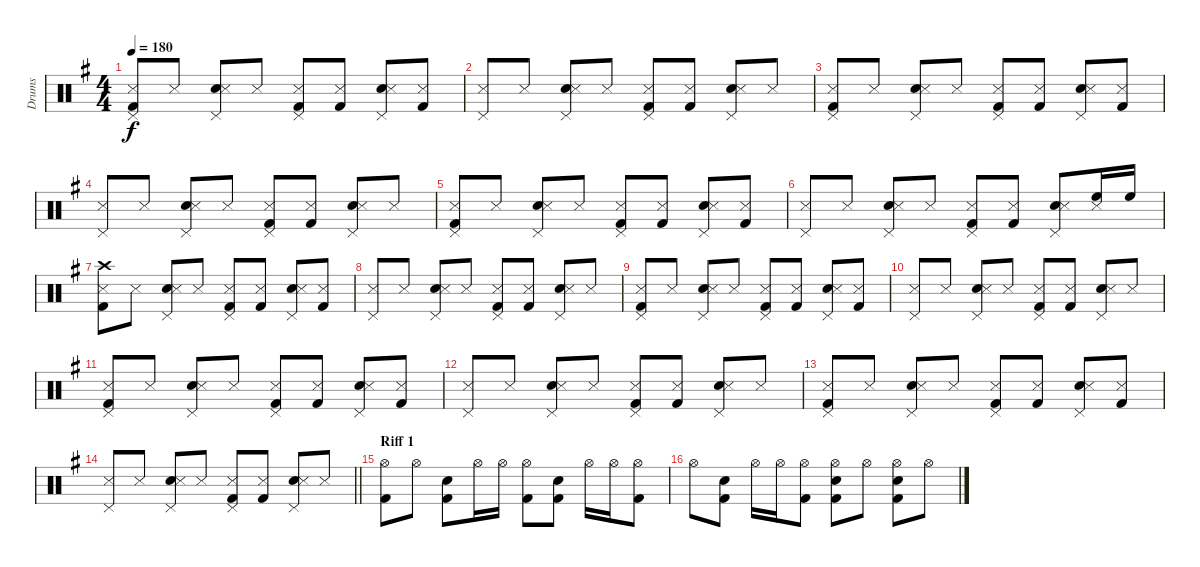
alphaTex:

\track ("Drums" "Drums") {instrument percussion bank 255}
\staff {score}
\articulation defaults
\ts (4 4)
\tempo 180
\clef neutral
\ks g
("Pedal Hi-Hat (hit)" "Snare (side stick) 3" "Kick (hit) 2").8{dy f} "Snare (side stick) 3".8 ("Pedal Hi-Hat (hit)" "Snare (hit) 2" "Snare (side stick) 3").8 "Snare (side stick) 3".8 ("Pedal Hi-Hat (hit)" "Snare (side stick) 3" "Kick (hit) 2").8 ("Snare (side stick) 3" "Kick (hit) 2").8 ("Pedal Hi-Hat (hit)" "Snare (hit) 2" "Snare (side stick) 3").8 ("Snare (side stick) 3" "Kick (hit) 2").8 |
("Pedal Hi-Hat (hit)" "Snare (side stick) 3").8 "Snare (side stick) 3".8 ("Pedal Hi-Hat (hit)" "Snare (hit) 2" "Snare (side stick) 3").8 "Snare (side stick) 3".8 ("Pedal Hi-Hat (hit)" "Snare (side stick) 3" "Kick (hit) 2").8 ("Snare (side stick) 3" "Kick (hit) 2").8 ("Pedal Hi-Hat (hit)" "Snare (hit) 2" "Snare (side stick) 3").8 "Snare (side stick) 3".8 |
("Pedal Hi-Hat (hit)" "Snare (side stick) 3" "Kick (hit) 2").8 "Snare (side stick) 3".8 ("Pedal Hi-Hat (hit)" "Snare (hit) 2" "Snare (side stick) 3").8 "Snare (side stick) 3".8 ("Pedal Hi-Hat (hit)" "Snare (side stick) 3" "Kick (hit) 2").8 ("Snare (side stick) 3" "Kick (hit) 2").8 ("Pedal Hi-Hat (hit)" "Snare (hit) 2" "Snare (side stick) 3").8 ("Snare (side stick) 3" "Kick (hit) 2").8 |
("Pedal Hi-Hat (hit)" "Snare (side stick) 3").8 "Snare (side stick) 3".8 ("Pedal Hi-Hat (hit)" "Snare (hit) 2" "Snare (side stick) 3").8 "Snare (side stick) 3".8 ("Pedal Hi-Hat (hit)" "Snare (side stick) 3" "Kick (hit) 2").8 ("Snare (side stick) 3" "Kick (hit) 2").8 ("Pedal Hi-Hat (hit)" "Snare (hit) 2" "Snare (side stick) 3").8 "Snare (side stick) 3".8 |
("Pedal Hi-Hat (hit)" "Snare (side stick) 3" "Kick (hit) 2").8 "Snare (side stick) 3".8 ("Pedal Hi-Hat (hit)" "Snare (hit) 2" "Snare (side stick) 3").8 "Snare (side stick) 3".8 ("Pedal Hi-Hat (hit)" "Snare (side stick) 3" "Kick (hit) 2").8 ("Snare (side stick) 3" "Kick (hit) 2").8 ("Pedal Hi-Hat (hit)" "Snare (hit) 2" "Snare (side stick) 3").8 ("Snare (side stick) 3" "Kick (hit) 2").8 |
("Pedal Hi-Hat (hit)" "Snare (side stick) 3").8 "Snare (side stick) 3".8 ("Pedal Hi-Hat (hit)" "Snare (hit) 2" "Snare (side stick) 3").8 "Snare (side stick) 3".8 ("Pedal Hi-Hat (hit)" "Snare (side stick) 3" "Kick (hit) 2").8 ("Snare (side stick) 3" "Kick (hit) 2").8 ("Pedal Hi-Hat (hit)" "Snare (hit) 2" "Snare (side stick) 3").8 ("High Floor Tom (hit)" "Snare (side stick) 3").16 "High Floor Tom (hit)".16 |
("Crash high (hit)" "Snare (side stick) 3" "Kick (hit) 2").8 "Snare (side stick) 3".8 ("Pedal Hi-Hat (hit)" "Snare (hit) 2" "Snare (side stick) 3").8 "Snare (side stick) 3".8 ("Pedal Hi-Hat (hit)" "Snare (side stick) 3" "Kick (hit) 2").8 ("Snare (side stick) 3" "Kick (hit) 2").8 ("Pedal Hi-Hat (hit)" "Snare (hit) 2" "Snare (side stick) 3").8 ("Snare (side stick) 3" "Kick (hit) 2").8 |
("Pedal Hi-Hat (hit)" "Snare (side stick) 3").8 "Snare (side stick) 3".8 ("Pedal Hi-Hat (hit)" "Snare (hit) 2" "Snare (side stick) 3").8 "Snare (side stick) 3".8 ("Pedal Hi-Hat (hit)" "Snare (side stick) 3" "Kick (hit) 2").8 ("Snare (side stick) 3" "Kick (hit) 2").8 ("Pedal Hi-Hat (hit)" "Snare (hit) 2" "Snare (side stick) 3").8 "Snare (side stick) 3".8 |
("Pedal Hi-Hat (hit)" "Snare (side stick) 3" "Kick (hit) 2").8 "Snare (side stick) 3".8 ("Pedal Hi-Hat (hit)" "Snare (hit) 2" "Snare (side stick) 3").8 "Snare (side stick) 3".8 ("Pedal Hi-Hat (hit)" "Snare (side stick) 3" "Kick (hit) 2").8 ("Snare (side stick) 3" "Kick (hit) 2").8 ("Pedal Hi-Hat (hit)" "Snare (hit) 2" "Snare (side stick) 3").8 ("Snare (side stick) 3" "Kick (hit) 2").8 |
("Pedal Hi-Hat (hit)" "Snare (side stick) 3").8 "Snare (side stick) 3".8 ("Pedal Hi-Hat (hit)" "Snare (hit) 2" "Snare (side stick) 3").8 "Snare (side stick) 3".8 ("Pedal Hi-Hat (hit)" "Snare (side stick) 3" "Kick (hit) 2").8 ("Snare (side stick) 3" "Kick (hit) 2").8 ("Pedal Hi-Hat (hit)" "Snare (hit) 2" "Snare (side stick) 3").8 "Snare (side stick) 3".8 |
("Pedal Hi-Hat (hit)" "Snare (side stick) 3" "Kick (hit) 2").8 "Snare (side stick) 3".8 ("Pedal Hi-Hat (hit)" "Snare (hit) 2" "Snare (side stick) 3").8 "Snare (side stick) 3".8 ("Pedal Hi-Hat (hit)" "Snare (side stick) 3" "Kick (hit) 2").8 ("Snare (side stick) 3" "Kick (hit) 2").8 ("Pedal Hi-Hat (hit)" "Snare (hit) 2" "Snare (side stick) 3").8 ("Snare (side stick) 3" "Kick (hit) 2").8 |
("Pedal Hi-Hat (hit)" "Snare (side stick) 3").8 "Snare (side stick) 3".8 ("Pedal Hi-Hat (hit)" "Snare (hit) 2" "Snare (side stick) 3").8 "Snare (side stick) 3".8 ("Pedal Hi-Hat (hit)" "Snare (side stick) 3" "Kick (hit) 2").8 ("Snare (side stick) 3" "Kick (hit) 2").8 ("Pedal Hi-Hat (hit)" "Snare (hit) 2" "Snare (side stick) 3").8 "Snare (side stick) 3".8 |
("Pedal Hi-Hat (hit)" "Snare (side stick) 3" "Kick (hit) 2").8 "Snare (side stick) 3".8 ("Pedal Hi-Hat (hit)" "Snare (hit) 2" "Snare (side stick) 3").8 "Snare (side stick) 3".8 ("Pedal Hi-Hat (hit)" "Snare (side stick) 3" "Kick (hit) 2").8 ("Snare (side stick) 3" "Kick (hit) 2").8 ("Pedal Hi-Hat (hit)" "Snare (hit) 2" "Snare (side stick) 3").8 ("Snare (side stick) 3" "Kick (hit) 2").8 |
\barLineRight lightlight
("Pedal Hi-Hat (hit)" "Snare (side stick) 3").8 "Snare (side stick) 3".8 ("Pedal Hi-Hat (hit)" "Snare (hit) 2" "Snare (side stick) 3").8 "Snare (side stick) 3".8 ("Pedal Hi-Hat (hit)" "Snare (side stick) 3" "Kick (hit) 2").8 ("Snare (side stick) 3" "Kick (hit) 2").8 ("Pedal Hi-Hat (hit)" "Snare (hit) 2" "Snare (side stick) 3").8 "Snare (side stick) 3".8 |
\section ("" "Riff 1")
("Hi-Hat (open)" "Kick (hit) 2").8 "Hi-Hat (open)".8 ("Snare (hit) 2" "Kick (hit) 2").8 "Hi-Hat (open)".16 "Hi-Hat (open)".16 ("Hi-Hat (open)" "Kick (hit) 2").8 ("Snare (hit) 2" "Kick (hit) 2").8 "Hi-Hat (open)".16 "Hi-Hat (open)".16 ("Hi-Hat (open)" "Kick (hit) 2").8 |
"Hi-Hat (open)".8 ("Snare (hit) 2" "Kick (hit) 2").8 "Hi-Hat (open)".16 "Hi-Hat (open)".16 ("Hi-Hat (open)" "Kick (hit) 2").8 ("Hi-Hat (open)" "Snare (hit) 2" "Kick (hit) 2").8 "Hi-Hat (open)".8 ("Hi-Hat (open)" "Snare (hit) 2" "Kick (hit) 2").8 "Hi-Hat (open)".8
